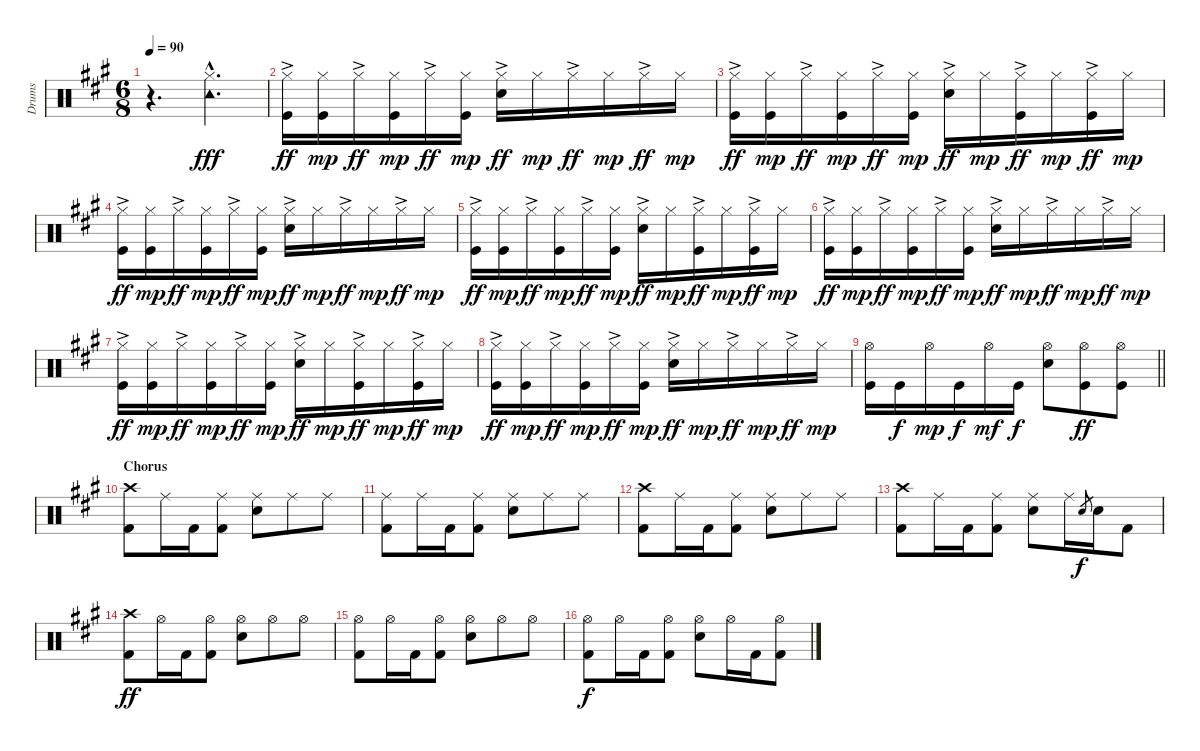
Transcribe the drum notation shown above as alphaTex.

\track ("Drums" "Drums") {instrument percussion}
\staff {score}
\articulation defaults
\ts (6 8)
\tempo 90
\clef neutral
\ks a
r.4{d dy fff} ("Tambourine (hit)"{hac} "Hi-Hat (closed)"{hac}).4{d} |
("Hi-Hat (closed)"{ac} "Kick (hit)").16{dy ff} ("Hi-Hat (closed)" "Kick (hit)").16{dy mp} "Hi-Hat (closed)"{ac}.16{dy ff} ("Hi-Hat (closed)" "Kick (hit)").16{dy mp} "Hi-Hat (closed)"{ac}.16{dy ff} ("Hi-Hat (closed)" "Kick (hit)").16{dy mp} ("Hi-Hat (closed)"{ac} "Snare (hit) 2").16{dy ff} "Hi-Hat (closed)".16{dy mp} "Hi-Hat (closed)"{ac}.16{dy ff} "Hi-Hat (closed)".16{dy mp} "Hi-Hat (closed)"{ac}.16{dy ff} "Hi-Hat (closed)".16{dy mp} |
("Hi-Hat (closed)"{ac} "Kick (hit)").16{dy ff} ("Hi-Hat (closed)" "Kick (hit)").16{dy mp} "Hi-Hat (closed)"{ac}.16{dy ff} ("Hi-Hat (closed)" "Kick (hit)").16{dy mp} "Hi-Hat (closed)"{ac}.16{dy ff} ("Hi-Hat (closed)" "Kick (hit)").16{dy mp} ("Hi-Hat (closed)"{ac} "Snare (hit) 2").16{dy ff} "Hi-Hat (closed)".16{dy mp} ("Hi-Hat (closed)"{ac} "Kick (hit)").16{dy ff} "Hi-Hat (closed)".16{dy mp} ("Hi-Hat (closed)"{ac} "Kick (hit)").16{dy ff} "Hi-Hat (closed)".16{dy mp} |
("Hi-Hat (closed)"{ac} "Kick (hit)").16{dy ff} ("Hi-Hat (closed)" "Kick (hit)").16{dy mp} "Hi-Hat (closed)"{ac}.16{dy ff} ("Hi-Hat (closed)" "Kick (hit)").16{dy mp} "Hi-Hat (closed)"{ac}.16{dy ff} ("Hi-Hat (closed)" "Kick (hit)").16{dy mp} ("Hi-Hat (closed)"{ac} "Snare (hit) 2").16{dy ff} "Hi-Hat (closed)".16{dy mp} "Hi-Hat (closed)"{ac}.16{dy ff} "Hi-Hat (closed)".16{dy mp} "Hi-Hat (closed)"{ac}.16{dy ff} "Hi-Hat (closed)".16{dy mp} |
("Hi-Hat (closed)"{ac} "Kick (hit)").16{dy ff} ("Hi-Hat (closed)" "Kick (hit)").16{dy mp} "Hi-Hat (closed)"{ac}.16{dy ff} ("Hi-Hat (closed)" "Kick (hit)").16{dy mp} "Hi-Hat (closed)"{ac}.16{dy ff} ("Hi-Hat (closed)" "Kick (hit)").16{dy mp} ("Hi-Hat (closed)"{ac} "Snare (hit) 2").16{dy ff} "Hi-Hat (closed)".16{dy mp} ("Hi-Hat (closed)"{ac} "Kick (hit)").16{dy ff} "Hi-Hat (closed)".16{dy mp} ("Hi-Hat (closed)"{ac} "Kick (hit)").16{dy ff} "Hi-Hat (closed)".16{dy mp} |
("Hi-Hat (closed)"{ac} "Kick (hit)").16{dy ff} ("Hi-Hat (closed)" "Kick (hit)").16{dy mp} "Hi-Hat (closed)"{ac}.16{dy ff} ("Hi-Hat (closed)" "Kick (hit)").16{dy mp} "Hi-Hat (closed)"{ac}.16{dy ff} ("Hi-Hat (closed)" "Kick (hit)").16{dy mp} ("Hi-Hat (closed)"{ac} "Snare (hit) 2").16{dy ff} "Hi-Hat (closed)".16{dy mp} "Hi-Hat (closed)"{ac}.16{dy ff} "Hi-Hat (closed)".16{dy mp} "Hi-Hat (closed)"{ac}.16{dy ff} "Hi-Hat (closed)".16{dy mp} |
("Hi-Hat (closed)"{ac} "Kick (hit)").16{dy ff} ("Hi-Hat (closed)" "Kick (hit)").16{dy mp} "Hi-Hat (closed)"{ac}.16{dy ff} ("Hi-Hat (closed)" "Kick (hit)").16{dy mp} "Hi-Hat (closed)"{ac}.16{dy ff} ("Hi-Hat (closed)" "Kick (hit)").16{dy mp} ("Hi-Hat (closed)"{ac} "Snare (hit) 2").16{dy ff} "Hi-Hat (closed)".16{dy mp} ("Hi-Hat (closed)"{ac} "Kick (hit)").16{dy ff} "Hi-Hat (closed)".16{dy mp} ("Hi-Hat (closed)"{ac} "Kick (hit)").16{dy ff} "Hi-Hat (closed)".16{dy mp} |
("Hi-Hat (closed)"{ac} "Kick (hit)").16{dy ff} ("Hi-Hat (closed)" "Kick (hit)").16{dy mp} "Hi-Hat (closed)"{ac}.16{dy ff} ("Hi-Hat (closed)" "Kick (hit)").16{dy mp} "Hi-Hat (closed)"{ac}.16{dy ff} ("Hi-Hat (closed)" "Kick (hit)").16{dy mp} ("Hi-Hat (closed)"{ac} "Snare (hit) 2").16{dy ff} "Hi-Hat (closed)".16{dy mp} "Hi-Hat (closed)"{ac}.16{dy ff} "Hi-Hat (closed)".16{dy mp} "Hi-Hat (closed)"{ac}.16{dy ff} "Hi-Hat (closed)".16{dy mp} |
\barLineRight lightlight
("Hi-Hat (open)" "Kick (hit)").16 "Kick (hit)".16{dy f} "Hi-Hat (open)".16{dy mp} "Kick (hit)".16{dy f} "Hi-Hat (open)".16{dy mf} "Kick (hit)".16{dy f} ("Hi-Hat (open)" "Snare (hit) 2").8 ("Hi-Hat (open)" "Kick (hit)").8{dy ff} ("Hi-Hat (open)" "Kick (hit)").8 |
\section ("" "Chorus")
("Crash high (hit)" "Kick (hit) 2").8 "Ride (middle)".16 "Kick (hit) 2".16 ("Ride (middle)" "Kick (hit) 2").8 ("Ride (middle)" "Snare (hit) 2").8 "Ride (middle)".8 "Ride (middle)".8 |
("Ride (middle)" "Kick (hit) 2").8 "Ride (middle)".16 "Kick (hit) 2".16 ("Ride (middle)" "Kick (hit) 2").8 ("Ride (middle)" "Snare (hit) 2").8 "Ride (middle)".8 "Ride (middle)".8 |
("Crash high (hit)" "Kick (hit) 2").8 "Ride (middle)".16 "Kick (hit) 2".16 ("Ride (middle)" "Kick (hit) 2").8 ("Ride (middle)" "Snare (hit) 2").8 "Ride (middle)".8 "Ride (middle)".8 |
("Crash high (hit)" "Kick (hit) 2").8 "Ride (middle)".16 "Kick (hit) 2".16 ("Ride (middle)" "Kick (hit) 2").8 ("Ride (middle)" "Snare (hit) 2").8 "Ride (middle)".16 "Snare (hit) 2".8{gr dy f} "Snare (hit) 2".16 "Kick (hit) 2".8 |
("Crash high (hit)" "Kick (hit) 2").8{dy ff} "Hi-Hat (open)".16 "Kick (hit) 2".16 ("Hi-Hat (open)" "Kick (hit) 2").8 ("Hi-Hat (open)" "Snare (hit) 2").8 "Hi-Hat (open)".8 "Hi-Hat (open)".8 |
("Hi-Hat (open)" "Kick (hit) 2").8 "Hi-Hat (open)".16 "Kick (hit) 2".16 ("Hi-Hat (open)" "Kick (hit) 2").8 ("Hi-Hat (open)" "Snare (hit) 2").8 "Hi-Hat (open)".8 "Hi-Hat (open)".8 |
("Hi-Hat (open)" "Kick (hit) 2").8{dy f} "Hi-Hat (open)".16 "Kick (hit) 2".16 ("Hi-Hat (open)" "Kick (hit) 2").8 ("Hi-Hat (open)" "Snare (hit) 2").8 "Hi-Hat (open)".16 "Kick (hit) 2".16 ("Hi-Hat (open)" "Kick (hit) 2").8
